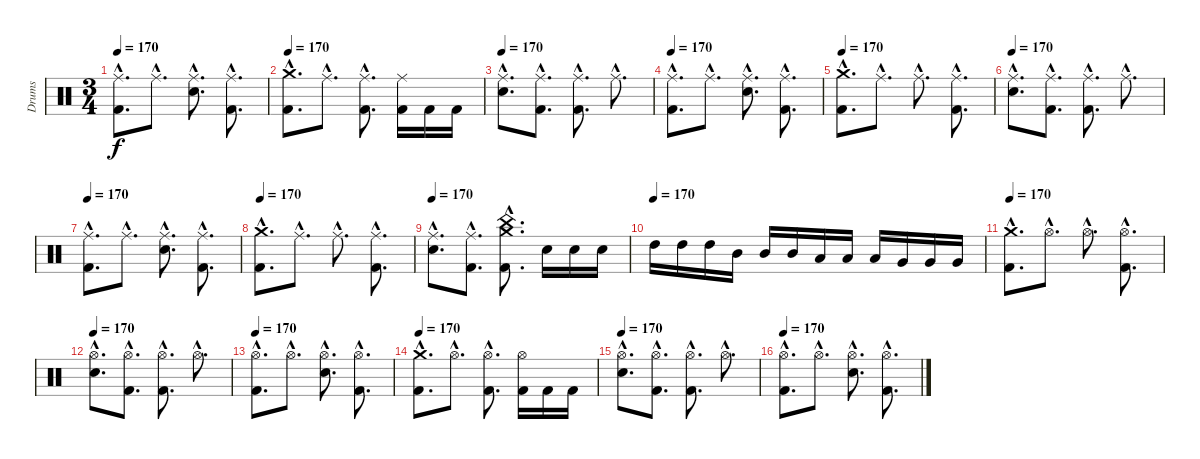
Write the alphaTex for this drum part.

\track ("Drums" "Drums") {instrument percussion}
\staff {score}
\articulation defaults
\ts (3 4)
\tempo 170
\clef neutral
\ks c
("Ride (middle)"{hac} "Kick (hit) 2"{hac}).8{d dy f} "Ride (middle)"{hac}.8{d} ("Ride (middle)"{hac} "Snare (hit) 2"{hac}).8{d} ("Ride (middle)"{hac} "Kick (hit) 2"{hac}).8{d} |
\tempo 170
("Crash medium (hit)"{hac} "Kick (hit) 2"{hac}).8{d} "Ride (middle)"{hac}.8{d} ("Ride (middle)"{hac} "Kick (hit) 2"{hac}).8{d} ("Ride (middle)" "Kick (hit) 2").16 "Kick (hit) 2".16 "Kick (hit) 2".16 |
\tempo 170
("Ride (middle)"{hac} "Snare (hit) 2"{hac}).8{d} ("Ride (middle)"{hac} "Kick (hit) 2"{hac}).8{d} ("Ride (middle)"{hac} "Kick (hit) 2"{hac}).8{d} "Ride (middle)"{hac}.8{d} |
\tempo 170
("Ride (middle)"{hac} "Kick (hit) 2"{hac}).8{d} "Ride (middle)"{hac}.8{d} ("Ride (middle)"{hac} "Snare (hit) 2"{hac}).8{d} ("Ride (middle)"{hac} "Kick (hit) 2"{hac}).8{d} |
\tempo 170
("Crash medium (hit)"{hac} "Kick (hit) 2"{hac}).8{d} "Ride (middle)"{hac}.8{d} "Ride (middle)"{hac}.8{d} ("Ride (middle)"{hac} "Kick (hit) 2"{hac}).8{d} |
\tempo 170
("Ride (middle)"{hac} "Snare (hit) 2"{hac}).8{d} ("Ride (middle)"{hac} "Kick (hit) 2"{hac}).8{d} ("Ride (middle)"{hac} "Kick (hit) 2"{hac}).8{d} "Ride (middle)"{hac}.8{d} |
\tempo 170
("Ride (middle)"{hac} "Kick (hit) 2"{hac}).8{d} "Ride (middle)"{hac}.8{d} ("Ride (middle)"{hac} "Snare (hit) 2"{hac}).8{d} ("Ride (middle)"{hac} "Kick (hit) 2"{hac}).8{d} |
\tempo 170
("Crash medium (hit)"{hac} "Kick (hit) 2"{hac}).8{d} "Ride (middle)"{hac}.8{d} "Ride (middle)"{hac}.8{d} ("Ride (middle)"{hac} "Kick (hit) 2"{hac}).8{d} |
\tempo 170
("Ride (middle)"{hac} "Snare (hit) 2"{hac}).8{d} ("Ride (middle)"{hac} "Kick (hit) 2"{hac}).8{d} ("Crash medium (hit)"{hac} "China (hit)"{hac} "Kick (hit) 2"{hac}).8{d} "Snare (hit) 2".16 "Snare (hit) 2".16 "Snare (hit) 2".16 |
\tempo (170)
"High Tom (hit)".16 "High Tom (hit)".16 "High Tom (hit)".16 "Mid Tom (hit)".16 "Mid Tom (hit)".16 "Mid Tom (hit)".16 "Low Tom (hit)".16 "Low Tom (hit)".16 "Low Tom (hit)".16 "Very Low Tom (hit)".16 "Very Low Tom (hit)".16 "Very Low Tom (hit)".16 |
\tempo 170
("Crash medium (hit)"{hac} "Kick (hit) 2"{hac}).8{d} "Hi-Hat (open)"{hac}.8{d} "Hi-Hat (open)"{hac}.8{d} ("Hi-Hat (open)"{hac} "Kick (hit) 2"{hac}).8{d} |
\tempo 170
("Hi-Hat (open)"{hac} "Snare (hit) 2"{hac}).8{d} ("Hi-Hat (open)"{hac} "Kick (hit) 2"{hac}).8{d} ("Hi-Hat (open)"{hac} "Kick (hit) 2"{hac}).8{d} "Hi-Hat (open)"{hac}.8{d} |
\tempo 170
("Hi-Hat (open)"{hac} "Kick (hit) 2"{hac}).8{d} "Hi-Hat (open)"{hac}.8{d} ("Hi-Hat (open)"{hac} "Snare (hit) 2"{hac}).8{d} ("Hi-Hat (open)"{hac} "Kick (hit) 2"{hac}).8{d} |
\tempo 170
("Crash medium (hit)"{hac} "Kick (hit) 2"{hac}).8{d} "Hi-Hat (open)"{hac}.8{d} ("Hi-Hat (open)"{hac} "Kick (hit) 2"{hac}).8{d} ("Hi-Hat (open)" "Kick (hit) 2").16 "Kick (hit) 2".16 "Kick (hit) 2".16 |
\tempo 170
("Hi-Hat (open)"{hac} "Snare (hit) 2"{hac}).8{d} ("Hi-Hat (open)"{hac} "Kick (hit) 2"{hac}).8{d} ("Hi-Hat (open)"{hac} "Kick (hit) 2"{hac}).8{d} "Hi-Hat (open)"{hac}.8{d} |
\tempo 170
("Hi-Hat (open)"{hac} "Kick (hit) 2"{hac}).8{d} "Hi-Hat (open)"{hac}.8{d} ("Hi-Hat (open)"{hac} "Snare (hit) 2"{hac}).8{d} ("Hi-Hat (open)"{hac} "Kick (hit) 2"{hac}).8{d}
